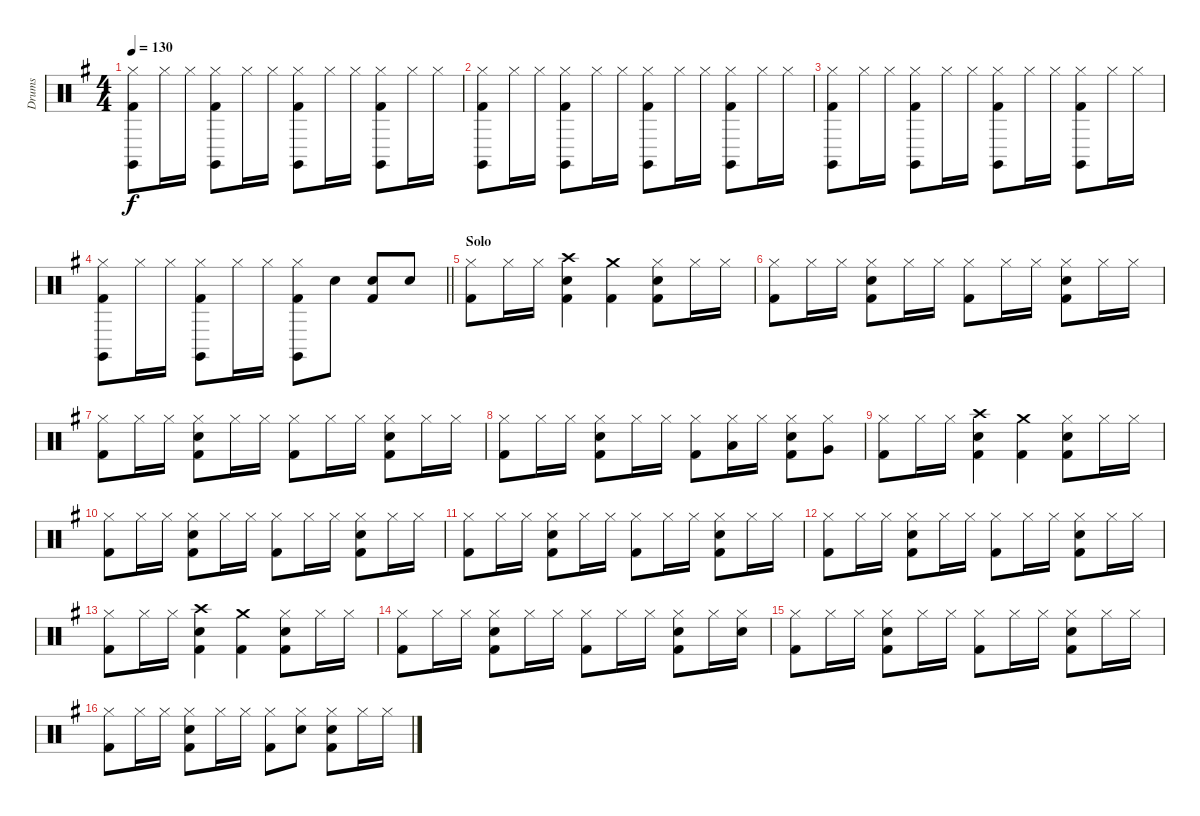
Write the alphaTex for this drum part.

\track ("Drums" "Drums") {instrument percussion}
\staff {score}
\articulation defaults
\ts (4 4)
\tempo 130
\clef neutral
\ks g
("Hi-Hat (closed)" "Claves (hit)" "Kick (hit) 2").8{dy f} "Hi-Hat (closed)".16 "Hi-Hat (closed)".16 ("Hi-Hat (closed)" "Claves (hit)" "Kick (hit) 2").8 "Hi-Hat (closed)".16 "Hi-Hat (closed)".16 ("Hi-Hat (closed)" "Claves (hit)" "Kick (hit) 2").8 "Hi-Hat (closed)".16 "Hi-Hat (closed)".16 ("Hi-Hat (closed)" "Claves (hit)" "Kick (hit) 2").8 "Hi-Hat (closed)".16 "Hi-Hat (closed)".16 |
("Hi-Hat (closed)" "Claves (hit)" "Kick (hit) 2").8 "Hi-Hat (closed)".16 "Hi-Hat (closed)".16 ("Hi-Hat (closed)" "Claves (hit)" "Kick (hit) 2").8 "Hi-Hat (closed)".16 "Hi-Hat (closed)".16 ("Hi-Hat (closed)" "Claves (hit)" "Kick (hit) 2").8 "Hi-Hat (closed)".16 "Hi-Hat (closed)".16 ("Hi-Hat (closed)" "Claves (hit)" "Kick (hit) 2").8 "Hi-Hat (closed)".16 "Hi-Hat (closed)".16 |
("Hi-Hat (closed)" "Claves (hit)" "Kick (hit) 2").8 "Hi-Hat (closed)".16 "Hi-Hat (closed)".16 ("Hi-Hat (closed)" "Claves (hit)" "Kick (hit) 2").8 "Hi-Hat (closed)".16 "Hi-Hat (closed)".16 ("Hi-Hat (closed)" "Claves (hit)" "Kick (hit) 2").8 "Hi-Hat (closed)".16 "Hi-Hat (closed)".16 ("Hi-Hat (closed)" "Claves (hit)" "Kick (hit) 2").8 "Hi-Hat (closed)".16 "Hi-Hat (closed)".16 |
\barLineRight lightlight
("Hi-Hat (closed)" "Claves (hit)" "Kick (hit) 2").8 "Hi-Hat (closed)".16 "Hi-Hat (closed)".16 ("Hi-Hat (closed)" "Claves (hit)" "Kick (hit) 2").8 "Hi-Hat (closed)".16 "Hi-Hat (closed)".16 ("Hi-Hat (closed)" "Claves (hit)" "Kick (hit) 2").8 "Electric Snare (hit)".8 ("Electric Snare (hit)" "Kick (hit) 2").8 "Electric Snare (hit)".8 |
\section ("" "Solo")
("Hi-Hat (closed)" "Kick (hit) 2").8 "Hi-Hat (closed)".16 "Hi-Hat (closed)".16 ("Crash high (hit)" "Electric Snare (hit)" "Kick (hit) 2").4 ("Crash medium (hit)" "Kick (hit) 2").4 ("Hi-Hat (closed)" "Electric Snare (hit)" "Kick (hit) 2").8 "Hi-Hat (closed)".16 "Hi-Hat (closed)".16 |
("Hi-Hat (closed)" "Kick (hit) 2").8 "Hi-Hat (closed)".16 "Hi-Hat (closed)".16 ("Hi-Hat (closed)" "Electric Snare (hit)" "Kick (hit) 2").8 "Hi-Hat (closed)".16 "Hi-Hat (closed)".16 ("Hi-Hat (closed)" "Kick (hit) 2").8 "Hi-Hat (closed)".16 "Hi-Hat (closed)".16 ("Hi-Hat (closed)" "Electric Snare (hit)" "Kick (hit) 2").8 "Hi-Hat (closed)".16 "Hi-Hat (closed)".16 |
("Hi-Hat (closed)" "Kick (hit) 2").8 "Hi-Hat (closed)".16 "Hi-Hat (closed)".16 ("Hi-Hat (closed)" "Electric Snare (hit)" "Kick (hit) 2").8 "Hi-Hat (closed)".16 "Hi-Hat (closed)".16 ("Hi-Hat (closed)" "Kick (hit) 2").8 "Hi-Hat (closed)".16 "Hi-Hat (closed)".16 ("Hi-Hat (closed)" "Electric Snare (hit)" "Kick (hit) 2").8 "Hi-Hat (closed)".16 "Hi-Hat (closed)".16 |
("Hi-Hat (closed)" "Kick (hit) 2").8 "Hi-Hat (closed)".16 "Hi-Hat (closed)".16 ("Hi-Hat (closed)" "Electric Snare (hit)" "Kick (hit) 2").8 "Hi-Hat (closed)".16 "Hi-Hat (closed)".16 ("Hi-Hat (closed)" "Kick (hit) 2").8 ("Hi-Hat (closed)" "Low Tom (hit)").16 "Hi-Hat (closed)".16 ("Hi-Hat (closed)" "Electric Snare (hit)" "Kick (hit) 2").8 ("Hi-Hat (closed)" "Very Low Tom (hit)").8 |
("Hi-Hat (closed)" "Kick (hit) 2").8 "Hi-Hat (closed)".16 "Hi-Hat (closed)".16 ("Crash high (hit)" "Electric Snare (hit)" "Kick (hit) 2").4 ("Crash medium (hit)" "Kick (hit) 2").4 ("Hi-Hat (closed)" "Electric Snare (hit)" "Kick (hit) 2").8 "Hi-Hat (closed)".16 "Hi-Hat (closed)".16 |
("Hi-Hat (closed)" "Kick (hit) 2").8 "Hi-Hat (closed)".16 "Hi-Hat (closed)".16 ("Hi-Hat (closed)" "Electric Snare (hit)" "Kick (hit) 2").8 "Hi-Hat (closed)".16 "Hi-Hat (closed)".16 ("Hi-Hat (closed)" "Kick (hit) 2").8 "Hi-Hat (closed)".16 "Hi-Hat (closed)".16 ("Hi-Hat (closed)" "Electric Snare (hit)" "Kick (hit) 2").8 "Hi-Hat (closed)".16 "Hi-Hat (closed)".16 |
("Hi-Hat (closed)" "Kick (hit) 2").8 "Hi-Hat (closed)".16 "Hi-Hat (closed)".16 ("Hi-Hat (closed)" "Electric Snare (hit)" "Kick (hit) 2").8 "Hi-Hat (closed)".16 "Hi-Hat (closed)".16 ("Hi-Hat (closed)" "Kick (hit) 2").8 "Hi-Hat (closed)".16 "Hi-Hat (closed)".16 ("Hi-Hat (closed)" "Electric Snare (hit)" "Kick (hit) 2").8 "Hi-Hat (closed)".16 "Hi-Hat (closed)".16 |
("Hi-Hat (closed)" "Kick (hit) 2").8 "Hi-Hat (closed)".16 "Hi-Hat (closed)".16 ("Hi-Hat (closed)" "Electric Snare (hit)" "Kick (hit) 2").8 "Hi-Hat (closed)".16 "Hi-Hat (closed)".16 ("Hi-Hat (closed)" "Kick (hit) 2").8 "Hi-Hat (closed)".16 "Hi-Hat (closed)".16 ("Hi-Hat (closed)" "Electric Snare (hit)" "Kick (hit) 2").8 "Hi-Hat (closed)".16 "Hi-Hat (closed)".16 |
("Hi-Hat (closed)" "Kick (hit) 2").8 "Hi-Hat (closed)".16 "Hi-Hat (closed)".16 ("Crash high (hit)" "Electric Snare (hit)" "Kick (hit) 2").4 ("Crash medium (hit)" "Kick (hit) 2").4 ("Hi-Hat (closed)" "Electric Snare (hit)" "Kick (hit) 2").8 "Hi-Hat (closed)".16 "Hi-Hat (closed)".16 |
("Hi-Hat (closed)" "Kick (hit) 2").8 "Hi-Hat (closed)".16 "Hi-Hat (closed)".16 ("Hi-Hat (closed)" "Electric Snare (hit)" "Kick (hit) 2").8 "Hi-Hat (closed)".16 "Hi-Hat (closed)".16 ("Hi-Hat (closed)" "Kick (hit) 2").8 "Hi-Hat (closed)".16 "Hi-Hat (closed)".16 ("Hi-Hat (closed)" "Electric Snare (hit)" "Kick (hit) 2").8 "Hi-Hat (closed)".16 ("Hi-Hat (closed)" "Electric Snare (hit)").16 |
("Hi-Hat (closed)" "Kick (hit) 2").8 "Hi-Hat (closed)".16 "Hi-Hat (closed)".16 ("Hi-Hat (closed)" "Electric Snare (hit)" "Kick (hit) 2").8 "Hi-Hat (closed)".16 "Hi-Hat (closed)".16 ("Hi-Hat (closed)" "Kick (hit) 2").8 "Hi-Hat (closed)".16 "Hi-Hat (closed)".16 ("Hi-Hat (closed)" "Electric Snare (hit)" "Kick (hit) 2").8 "Hi-Hat (closed)".16 "Hi-Hat (closed)".16 |
("Hi-Hat (closed)" "Kick (hit) 2").8 "Hi-Hat (closed)".16 "Hi-Hat (closed)".16 ("Hi-Hat (closed)" "Electric Snare (hit)" "Kick (hit) 2").8 "Hi-Hat (closed)".16 "Hi-Hat (closed)".16 ("Hi-Hat (closed)" "Kick (hit) 2").8 ("Hi-Hat (closed)" "Electric Snare (hit)").8 ("Hi-Hat (closed)" "Electric Snare (hit)" "Kick (hit) 2").8 "Hi-Hat (closed)".16 "Hi-Hat (closed)".16
